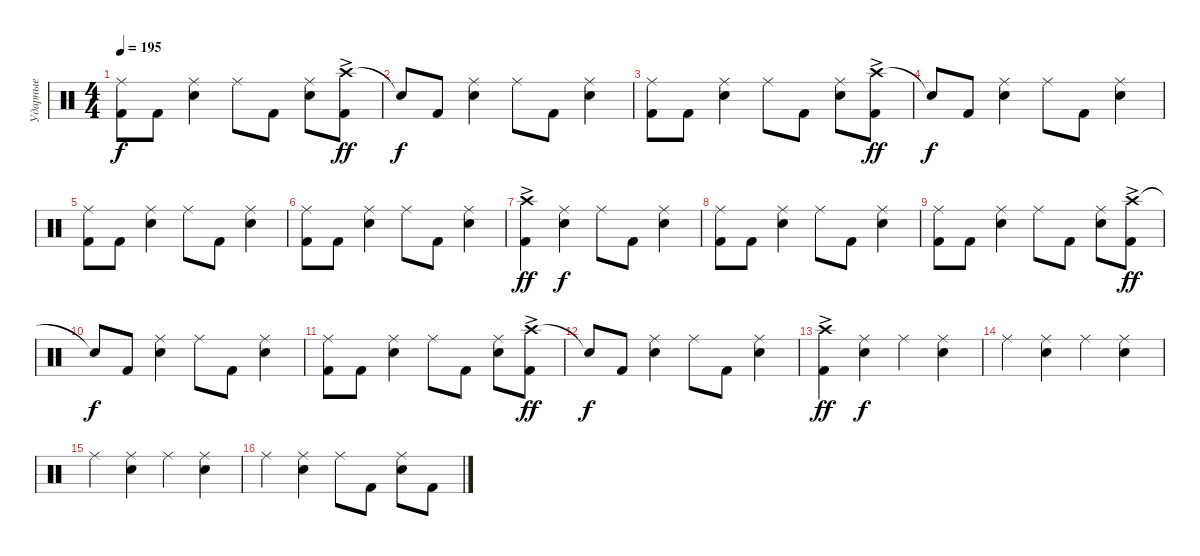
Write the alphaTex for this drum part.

\track ("Ударные" "Ударные") {instrument percussion}
\staff {score}
\articulation defaults
\ts (4 4)
\tempo 195
\clef neutral
\ks c
("Ride (middle)" "Kick (hit) 2").8{dy f} "Kick (hit) 2".8 ("Ride (middle)" "Snare (hit) 2").4 "Ride (middle)".8 "Kick (hit) 2".8 ("Ride (middle)" "Snare (hit) 2").8 ("Crash high (hit)"{ac} "Kick (hit) 2").8{dy ff} |
"Snare (hit)"{t}.8{dy f} "Kick (hit) 2".8 ("Ride (middle)" "Snare (hit) 2").4 "Ride (middle)".8 "Kick (hit) 2".8 ("Ride (middle)" "Snare (hit) 2").4 |
("Ride (middle)" "Kick (hit) 2").8 "Kick (hit) 2".8 ("Ride (middle)" "Snare (hit) 2").4 "Ride (middle)".8 "Kick (hit) 2".8 ("Ride (middle)" "Snare (hit) 2").8 ("Crash high (hit)"{ac} "Kick (hit) 2").8{dy ff} |
"Snare (hit)"{t}.8{dy f} "Kick (hit) 2".8 ("Ride (middle)" "Snare (hit) 2").4 "Ride (middle)".8 "Kick (hit) 2".8 ("Ride (middle)" "Snare (hit) 2").4 |
("Ride (middle)" "Kick (hit) 2").8 "Kick (hit) 2".8 ("Ride (middle)" "Snare (hit) 2").4 "Ride (middle)".8 "Kick (hit) 2".8 ("Ride (middle)" "Snare (hit) 2").4 |
("Ride (middle)" "Kick (hit) 2").8 "Kick (hit) 2".8 ("Ride (middle)" "Snare (hit) 2").4 "Ride (middle)".8 "Kick (hit) 2".8 ("Ride (middle)" "Snare (hit) 2").4 |
("Crash high (hit)"{ac} "Kick (hit) 2").4{dy ff} ("Ride (middle)" "Snare (hit) 2").4{dy f} "Ride (middle)".8 "Kick (hit) 2".8 ("Ride (middle)" "Snare (hit) 2").4 |
("Ride (middle)" "Kick (hit) 2").8 "Kick (hit) 2".8 ("Ride (middle)" "Snare (hit) 2").4 "Ride (middle)".8 "Kick (hit) 2".8 ("Ride (middle)" "Snare (hit) 2").4 |
("Ride (middle)" "Kick (hit) 2").8 "Kick (hit) 2".8 ("Ride (middle)" "Snare (hit) 2").4 "Ride (middle)".8 "Kick (hit) 2".8 ("Ride (middle)" "Snare (hit) 2").8 ("Crash high (hit)"{ac} "Kick (hit) 2").8{dy ff} |
"Snare (hit)"{t}.8{dy f} "Kick (hit) 2".8 ("Ride (middle)" "Snare (hit) 2").4 "Ride (middle)".8 "Kick (hit) 2".8 ("Ride (middle)" "Snare (hit) 2").4 |
("Ride (middle)" "Kick (hit) 2").8 "Kick (hit) 2".8 ("Ride (middle)" "Snare (hit) 2").4 "Ride (middle)".8 "Kick (hit) 2".8 ("Ride (middle)" "Snare (hit) 2").8 ("Crash high (hit)"{ac} "Kick (hit) 2").8{dy ff} |
"Snare (hit)"{t}.8{dy f} "Kick (hit) 2".8 ("Ride (middle)" "Snare (hit) 2").4 "Ride (middle)".8 "Kick (hit) 2".8 ("Ride (middle)" "Snare (hit) 2").4 |
("Crash high (hit)"{ac} "Kick (hit) 2").4{dy ff} ("Ride (middle)" "Snare (hit) 2").4{dy f} "Ride (middle)".4 ("Ride (middle)" "Snare (hit) 2").4 |
"Ride (middle)".4 ("Ride (middle)" "Snare (hit) 2").4 "Ride (middle)".4 ("Ride (middle)" "Snare (hit) 2").4 |
"Ride (middle)".4 ("Ride (middle)" "Snare (hit) 2").4 "Ride (middle)".4 ("Ride (middle)" "Snare (hit) 2").4 |
"Ride (middle)".4 ("Ride (middle)" "Snare (hit) 2").4 "Ride (middle)".8 "Kick (hit) 2".8 ("Ride (middle)" "Snare (hit) 2").8 "Kick (hit) 2".8
